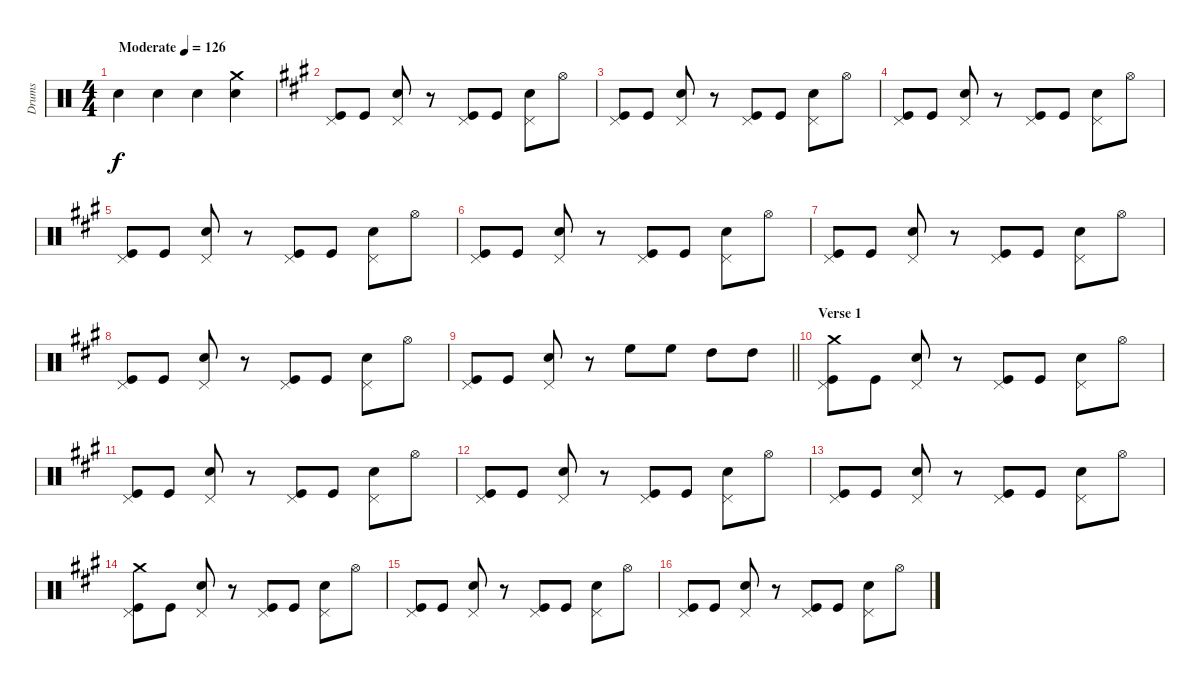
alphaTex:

\track ("Drums" "Drums") {instrument percussion}
\staff {score}
\articulation defaults
\ts (4 4)
\tempo (126 "Moderate")
\clef neutral
\ks c "Snare (hit) 2".4{dy f} "Snare (hit) 2".4 "Snare (hit) 2".4
("Crash medium (hit)" "Snare (hit) 2").4 |
\ks a
("Pedal Hi-Hat (hit)" "Kick (hit)").8 "Kick (hit)".8 ("Pedal Hi-Hat (hit)" "Snare (hit) 2").8 r.8 ("Pedal Hi-Hat (hit)" "Kick (hit)").8 "Kick (hit)".8 ("Pedal Hi-Hat (hit)" "Snare (hit) 2").8 "Hi-Hat (open)".8 |
("Pedal Hi-Hat (hit)" "Kick (hit)").8 "Kick (hit)".8 ("Pedal Hi-Hat (hit)" "Snare (hit) 2").8 r.8 ("Pedal Hi-Hat (hit)" "Kick (hit)").8 "Kick (hit)".8 ("Pedal Hi-Hat (hit)" "Snare (hit) 2").8 "Hi-Hat (open)".8 |
("Pedal Hi-Hat (hit)" "Kick (hit)").8 "Kick (hit)".8 ("Pedal Hi-Hat (hit)" "Snare (hit) 2").8 r.8 ("Pedal Hi-Hat (hit)" "Kick (hit)").8 "Kick (hit)".8 ("Pedal Hi-Hat (hit)" "Snare (hit) 2").8 "Hi-Hat (open)".8 |
("Pedal Hi-Hat (hit)" "Kick (hit)").8 "Kick (hit)".8 ("Pedal Hi-Hat (hit)" "Snare (hit) 2").8 r.8 ("Pedal Hi-Hat (hit)" "Kick (hit)").8 "Kick (hit)".8 ("Pedal Hi-Hat (hit)" "Snare (hit) 2").8 "Hi-Hat (open)".8 |
("Pedal Hi-Hat (hit)" "Kick (hit)").8 "Kick (hit)".8 ("Pedal Hi-Hat (hit)" "Snare (hit) 2").8 r.8 ("Pedal Hi-Hat (hit)" "Kick (hit)").8 "Kick (hit)".8 ("Pedal Hi-Hat (hit)" "Snare (hit) 2").8 "Hi-Hat (open)".8 |
("Pedal Hi-Hat (hit)" "Kick (hit)").8 "Kick (hit)".8 ("Pedal Hi-Hat (hit)" "Snare (hit) 2").8 r.8 ("Pedal Hi-Hat (hit)" "Kick (hit)").8 "Kick (hit)".8 ("Pedal Hi-Hat (hit)" "Snare (hit) 2").8 "Hi-Hat (open)".8 |
("Pedal Hi-Hat (hit)" "Kick (hit)").8 "Kick (hit)".8 ("Pedal Hi-Hat (hit)" "Snare (hit) 2").8 r.8 ("Pedal Hi-Hat (hit)" "Kick (hit)").8 "Kick (hit)".8 ("Pedal Hi-Hat (hit)" "Snare (hit) 2").8 "Hi-Hat (open)".8 |
\barLineRight lightlight
("Pedal Hi-Hat (hit)" "Kick (hit)").8 "Kick (hit)".8 ("Pedal Hi-Hat (hit)" "Snare (hit) 2").8 r.8 "High Floor Tom (hit)".8 "High Floor Tom (hit)".8 "High Tom (hit)".8 "High Tom (hit)".8 |
\section ("" "Verse 1")
("Crash medium (hit)" "Pedal Hi-Hat (hit)" "Kick (hit)").8 "Kick (hit)".8 ("Pedal Hi-Hat (hit)" "Snare (hit) 2").8 r.8 ("Pedal Hi-Hat (hit)" "Kick (hit)").8 "Kick (hit)".8 ("Pedal Hi-Hat (hit)" "Snare (hit) 2").8 "Hi-Hat (open)".8 |
("Pedal Hi-Hat (hit)" "Kick (hit)").8 "Kick (hit)".8 ("Pedal Hi-Hat (hit)" "Snare (hit) 2").8 r.8 ("Pedal Hi-Hat (hit)" "Kick (hit)").8 "Kick (hit)".8 ("Pedal Hi-Hat (hit)" "Snare (hit) 2").8 "Hi-Hat (open)".8 |
("Pedal Hi-Hat (hit)" "Kick (hit)").8 "Kick (hit)".8 ("Pedal Hi-Hat (hit)" "Snare (hit) 2").8 r.8 ("Pedal Hi-Hat (hit)" "Kick (hit)").8 "Kick (hit)".8 ("Pedal Hi-Hat (hit)" "Snare (hit) 2").8 "Hi-Hat (open)".8 |
("Pedal Hi-Hat (hit)" "Kick (hit)").8 "Kick (hit)".8 ("Pedal Hi-Hat (hit)" "Snare (hit) 2").8 r.8 ("Pedal Hi-Hat (hit)" "Kick (hit)").8 "Kick (hit)".8 ("Pedal Hi-Hat (hit)" "Snare (hit) 2").8 "Hi-Hat (open)".8 |
("Crash medium (hit)" "Pedal Hi-Hat (hit)" "Kick (hit)").8 "Kick (hit)".8 ("Pedal Hi-Hat (hit)" "Snare (hit) 2").8 r.8 ("Pedal Hi-Hat (hit)" "Kick (hit)").8 "Kick (hit)".8 ("Pedal Hi-Hat (hit)" "Snare (hit) 2").8 "Hi-Hat (open)".8 |
("Pedal Hi-Hat (hit)" "Kick (hit)").8 "Kick (hit)".8 ("Pedal Hi-Hat (hit)" "Snare (hit) 2").8 r.8 ("Pedal Hi-Hat (hit)" "Kick (hit)").8 "Kick (hit)".8 ("Pedal Hi-Hat (hit)" "Snare (hit) 2").8 "Hi-Hat (open)".8 |
("Pedal Hi-Hat (hit)" "Kick (hit)").8 "Kick (hit)".8 ("Pedal Hi-Hat (hit)" "Snare (hit) 2").8 r.8 ("Pedal Hi-Hat (hit)" "Kick (hit)").8 "Kick (hit)".8 ("Pedal Hi-Hat (hit)" "Snare (hit) 2").8 "Hi-Hat (open)".8
